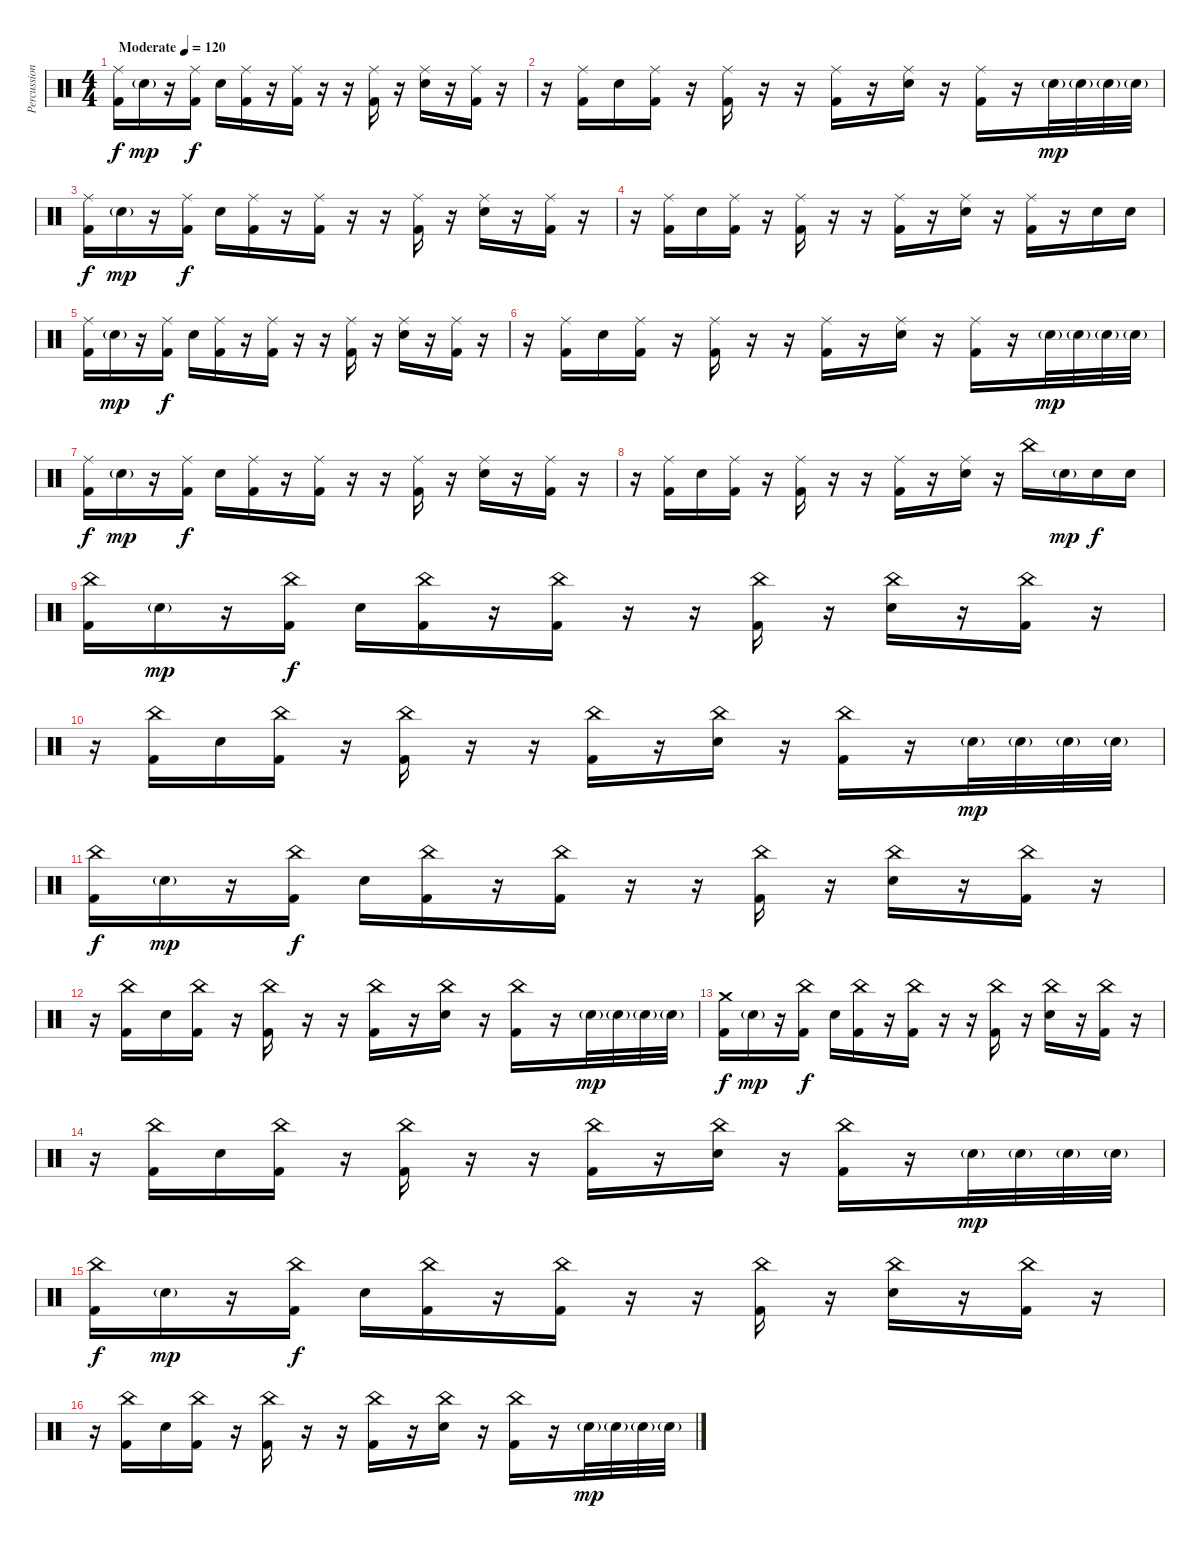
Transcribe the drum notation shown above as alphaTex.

\track ("Percussion" "Percussion") {instrument percussion}
\staff {score}
\articulation defaults
\ts (4 4)
\tempo (120 "Moderate")
\clef neutral
\ks c
("Ride (middle)" "Kick (hit) 2").16{dy f} "Electric Snare (hit)"{g}.16{dy mp} r.16 ("Ride (middle)" "Kick (hit) 2").16{dy f} "Electric Snare (hit)".16 ("Ride (middle)" "Kick (hit) 2").16 r.16 ("Ride (middle)" "Kick (hit) 2").16 r.16 r.16 ("Ride (middle)" "Kick (hit) 2").16 r.16 ("Ride (middle)" "Electric Snare (hit)").16 r.16 ("Ride (middle)" "Kick (hit) 2").16 r.16 |
r.16 ("Ride (middle)" "Kick (hit) 2").16 "Electric Snare (hit)".16 ("Ride (middle)" "Kick (hit) 2").16 r.16 ("Ride (middle)" "Kick (hit) 2").16 r.16 r.16 ("Ride (middle)" "Kick (hit) 2").16 r.16 ("Ride (middle)" "Electric Snare (hit)").16 r.16 ("Ride (middle)" "Kick (hit) 2").16 r.16 "Electric Snare (hit)"{g}.32{dy mp} "Electric Snare (hit)"{g}.32 "Electric Snare (hit)"{g}.32 "Electric Snare (hit)"{g}.32 |
("Ride (middle)" "Kick (hit) 2").16{dy f} "Electric Snare (hit)"{g}.16{dy mp} r.16 ("Ride (middle)" "Kick (hit) 2").16{dy f} "Electric Snare (hit)".16 ("Ride (middle)" "Kick (hit) 2").16 r.16 ("Ride (middle)" "Kick (hit) 2").16 r.16 r.16 ("Ride (middle)" "Kick (hit) 2").16 r.16 ("Ride (middle)" "Electric Snare (hit)").16 r.16 ("Ride (middle)" "Kick (hit) 2").16 r.16 |
r.16 ("Ride (middle)" "Kick (hit) 2").16 "Electric Snare (hit)".16 ("Ride (middle)" "Kick (hit) 2").16 r.16 ("Ride (middle)" "Kick (hit) 2").16 r.16 r.16 ("Ride (middle)" "Kick (hit) 2").16 r.16 ("Ride (middle)" "Electric Snare (hit)").16 r.16 ("Ride (middle)" "Kick (hit) 2").16 r.16 "Electric Snare (hit)".16 "Electric Snare (hit)".16 |
("Ride (middle)" "Kick (hit) 2").16 "Electric Snare (hit)"{g}.16{dy mp} r.16 ("Ride (middle)" "Kick (hit) 2").16{dy f} "Electric Snare (hit)".16 ("Ride (middle)" "Kick (hit) 2").16 r.16 ("Ride (middle)" "Kick (hit) 2").16 r.16 r.16 ("Ride (middle)" "Kick (hit) 2").16 r.16 ("Ride (middle)" "Electric Snare (hit)").16 r.16 ("Ride (middle)" "Kick (hit) 2").16 r.16 |
r.16 ("Ride (middle)" "Kick (hit) 2").16 "Electric Snare (hit)".16 ("Ride (middle)" "Kick (hit) 2").16 r.16 ("Ride (middle)" "Kick (hit) 2").16 r.16 r.16 ("Ride (middle)" "Kick (hit) 2").16 r.16 ("Ride (middle)" "Electric Snare (hit)").16 r.16 ("Ride (middle)" "Kick (hit) 2").16 r.16 "Electric Snare (hit)"{g}.32{dy mp} "Electric Snare (hit)"{g}.32 "Electric Snare (hit)"{g}.32 "Electric Snare (hit)"{g}.32 |
("Ride (middle)" "Kick (hit) 2").16{dy f} "Electric Snare (hit)"{g}.16{dy mp} r.16 ("Ride (middle)" "Kick (hit) 2").16{dy f} "Electric Snare (hit)".16 ("Ride (middle)" "Kick (hit) 2").16 r.16 ("Ride (middle)" "Kick (hit) 2").16 r.16 r.16 ("Ride (middle)" "Kick (hit) 2").16 r.16 ("Ride (middle)" "Electric Snare (hit)").16 r.16 ("Ride (middle)" "Kick (hit) 2").16 r.16 |
r.16 ("Ride (middle)" "Kick (hit) 2").16 "Electric Snare (hit)".16 ("Ride (middle)" "Kick (hit) 2").16 r.16 ("Ride (middle)" "Kick (hit) 2").16 r.16 r.16 ("Ride (middle)" "Kick (hit) 2").16 r.16 ("Ride (middle)" "Electric Snare (hit)").16 r.16 "China (hit)".16 "Electric Snare (hit)"{g}.16{dy mp} "Electric Snare (hit)".16{dy f} "Electric Snare (hit)".16 |
("China (hit)" "Kick (hit) 2").16 "Electric Snare (hit)"{g}.16{dy mp} r.16 ("China (hit)" "Kick (hit) 2").16{dy f} "Electric Snare (hit)".16 ("China (hit)" "Kick (hit) 2").16 r.16 ("China (hit)" "Kick (hit) 2").16 r.16 r.16 ("China (hit)" "Kick (hit) 2").16 r.16 ("China (hit)" "Electric Snare (hit)").16 r.16 ("China (hit)" "Kick (hit) 2").16 r.16 |
r.16 ("China (hit)" "Kick (hit) 2").16 "Electric Snare (hit)".16 ("China (hit)" "Kick (hit) 2").16 r.16 ("China (hit)" "Kick (hit) 2").16 r.16 r.16 ("China (hit)" "Kick (hit) 2").16 r.16 ("China (hit)" "Electric Snare (hit)").16 r.16 ("China (hit)" "Kick (hit) 2").16 r.16 "Electric Snare (hit)"{g}.32{dy mp} "Electric Snare (hit)"{g}.32 "Electric Snare (hit)"{g}.32 "Electric Snare (hit)"{g}.32 |
("China (hit)" "Kick (hit) 2").16{dy f} "Electric Snare (hit)"{g}.16{dy mp} r.16 ("China (hit)" "Kick (hit) 2").16{dy f} "Electric Snare (hit)".16 ("China (hit)" "Kick (hit) 2").16 r.16 ("China (hit)" "Kick (hit) 2").16 r.16 r.16 ("China (hit)" "Kick (hit) 2").16 r.16 ("China (hit)" "Electric Snare (hit)").16 r.16 ("China (hit)" "Kick (hit) 2").16 r.16 |
r.16 ("China (hit)" "Kick (hit) 2").16 "Electric Snare (hit)".16 ("China (hit)" "Kick (hit) 2").16 r.16 ("China (hit)" "Kick (hit) 2").16 r.16 r.16 ("China (hit)" "Kick (hit) 2").16 r.16 ("China (hit)" "Electric Snare (hit)").16 r.16 ("China (hit)" "Kick (hit) 2").16 r.16 "Electric Snare (hit)"{g}.32{dy mp} "Electric Snare (hit)"{g}.32 "Electric Snare (hit)"{g}.32 "Electric Snare (hit)"{g}.32 |
("Crash medium (hit)" "Kick (hit) 2").16{dy f} "Electric Snare (hit)"{g}.16{dy mp} r.16 ("China (hit)" "Kick (hit) 2").16{dy f} "Electric Snare (hit)".16 ("China (hit)" "Kick (hit) 2").16 r.16 ("China (hit)" "Kick (hit) 2").16 r.16 r.16 ("China (hit)" "Kick (hit) 2").16 r.16 ("China (hit)" "Electric Snare (hit)").16 r.16 ("China (hit)" "Kick (hit) 2").16 r.16 |
r.16 ("China (hit)" "Kick (hit) 2").16 "Electric Snare (hit)".16 ("China (hit)" "Kick (hit) 2").16 r.16 ("China (hit)" "Kick (hit) 2").16 r.16 r.16 ("China (hit)" "Kick (hit) 2").16 r.16 ("China (hit)" "Electric Snare (hit)").16 r.16 ("China (hit)" "Kick (hit) 2").16 r.16 "Electric Snare (hit)"{g}.32{dy mp} "Electric Snare (hit)"{g}.32 "Electric Snare (hit)"{g}.32 "Electric Snare (hit)"{g}.32 |
("China (hit)" "Kick (hit) 2").16{dy f} "Electric Snare (hit)"{g}.16{dy mp} r.16 ("China (hit)" "Kick (hit) 2").16{dy f} "Electric Snare (hit)".16 ("China (hit)" "Kick (hit) 2").16 r.16 ("China (hit)" "Kick (hit) 2").16 r.16 r.16 ("China (hit)" "Kick (hit) 2").16 r.16 ("China (hit)" "Electric Snare (hit)").16 r.16 ("China (hit)" "Kick (hit) 2").16 r.16 |
r.16 ("China (hit)" "Kick (hit) 2").16 "Electric Snare (hit)".16 ("China (hit)" "Kick (hit) 2").16 r.16 ("China (hit)" "Kick (hit) 2").16 r.16 r.16 ("China (hit)" "Kick (hit) 2").16 r.16 ("China (hit)" "Electric Snare (hit)").16 r.16 ("China (hit)" "Kick (hit) 2").16 r.16 "Electric Snare (hit)"{g}.32{dy mp} "Electric Snare (hit)"{g}.32 "Electric Snare (hit)"{g}.32 "Electric Snare (hit)"{g}.32
